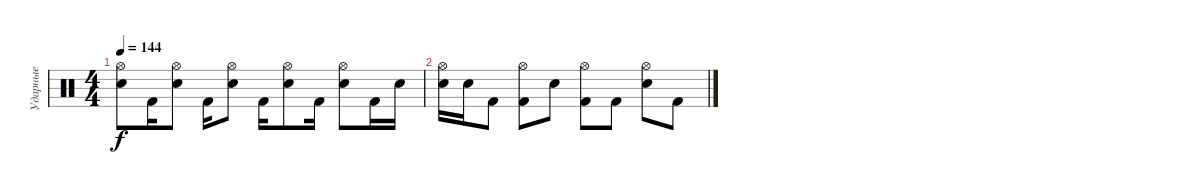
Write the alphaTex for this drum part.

\track ("Ударные" "Ударные") {instrument percussion}
\staff {score}
\articulation defaults
\ts (4 4)
\tempo 144
\clef neutral
\ks c
("Hi-Hat (open)" "Electric Snare (hit)").8{dy f} "Kick (hit) 2".16 ("Hi-Hat (open)" "Electric Snare (hit)").8 "Kick (hit) 2".16 ("Hi-Hat (open)" "Electric Snare (hit)").8 "Kick (hit) 2".16 ("Hi-Hat (open)" "Electric Snare (hit)").8 "Kick (hit) 2".16 ("Hi-Hat (open)" "Electric Snare (hit)").8 "Kick (hit) 2".16 "Electric Snare (hit)".16 |
("Hi-Hat (open)" "Electric Snare (hit)").16 "Electric Snare (hit)".16 "Kick (hit) 2".8 ("Hi-Hat (open)" "Kick (hit) 2").8 "Electric Snare (hit)".8 ("Hi-Hat (open)" "Kick (hit) 2").8 "Kick (hit) 2".8 ("Hi-Hat (open)" "Electric Snare (hit)").8 "Kick (hit) 2".8
